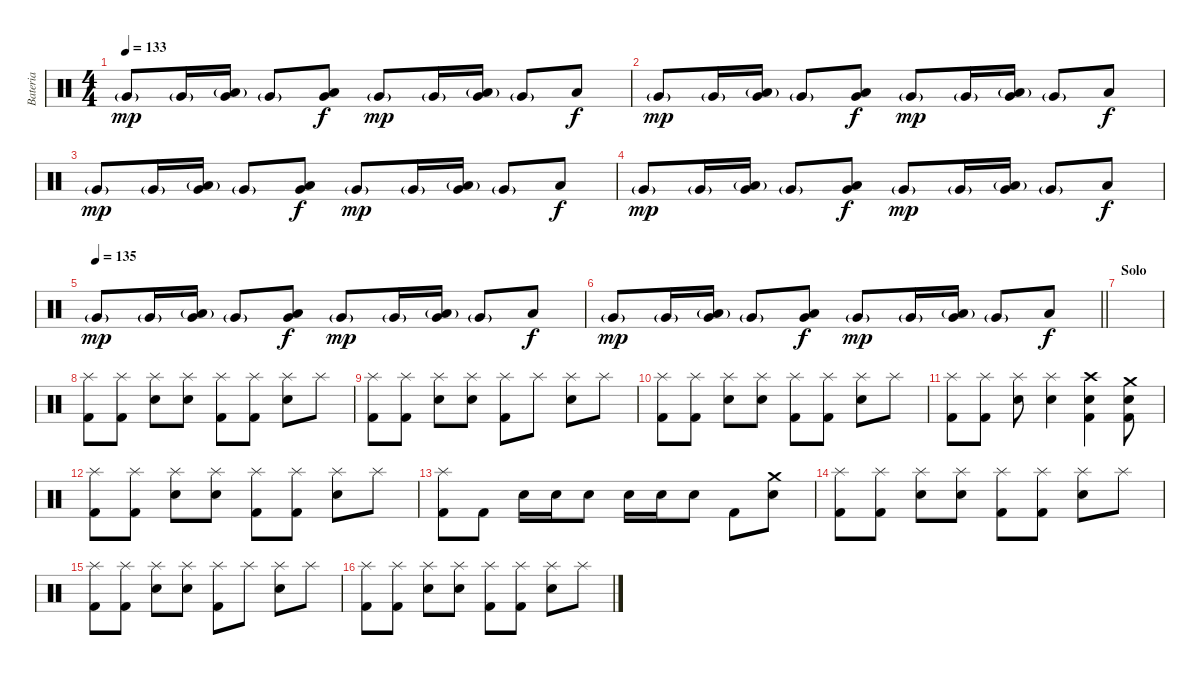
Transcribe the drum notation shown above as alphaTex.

\track ("Bateria" "Bateria") {instrument percussion}
\staff {score}
\articulation defaults
\ts (4 4)
\tempo 133
\clef neutral
\ks c "Very Low Tom (hit)"{g}.8{dy mp} "Very Low Tom (hit)"{g}.16
("Low Floor Tom (hit)"{g} "Very Low Tom (hit)").16 "Very Low Tom (hit)"{g}.8 ("Low Floor Tom (hit)" "Very Low Tom (hit)").8{dy f} "Very Low Tom (hit)"{g}.8{dy mp} "Very Low Tom (hit)"{g}.16 ("Low Floor Tom (hit)"{g} "Very Low Tom (hit)").16 "Very Low Tom (hit)"{g}.8 "Low Floor Tom (hit)".8{dy f} |
"Very Low Tom (hit)"{g}.8{dy mp} "Very Low Tom (hit)"{g}.16 ("Low Floor Tom (hit)"{g} "Very Low Tom (hit)").16 "Very Low Tom (hit)"{g}.8 ("Low Floor Tom (hit)" "Very Low Tom (hit)").8{dy f} "Very Low Tom (hit)"{g}.8{dy mp} "Very Low Tom (hit)"{g}.16 ("Low Floor Tom (hit)"{g} "Very Low Tom (hit)").16 "Very Low Tom (hit)"{g}.8 "Low Floor Tom (hit)".8{dy f} |
"Very Low Tom (hit)"{g}.8{dy mp} "Very Low Tom (hit)"{g}.16 ("Low Floor Tom (hit)"{g} "Very Low Tom (hit)").16 "Very Low Tom (hit)"{g}.8 ("Low Floor Tom (hit)" "Very Low Tom (hit)").8{dy f} "Very Low Tom (hit)"{g}.8{dy mp} "Very Low Tom (hit)"{g}.16 ("Low Floor Tom (hit)"{g} "Very Low Tom (hit)").16 "Very Low Tom (hit)"{g}.8 "Low Floor Tom (hit)".8{dy f} |
"Very Low Tom (hit)"{g}.8{dy mp} "Very Low Tom (hit)"{g}.16 ("Low Floor Tom (hit)"{g} "Very Low Tom (hit)").16 "Very Low Tom (hit)"{g}.8 ("Low Floor Tom (hit)" "Very Low Tom (hit)").8{dy f} "Very Low Tom (hit)"{g}.8{dy mp} "Very Low Tom (hit)"{g}.16 ("Low Floor Tom (hit)"{g} "Very Low Tom (hit)").16 "Very Low Tom (hit)"{g}.8 "Low Floor Tom (hit)".8{dy f} |
\tempo (135)
"Very Low Tom (hit)"{g}.8{dy mp} "Very Low Tom (hit)"{g}.16 ("Low Floor Tom (hit)"{g} "Very Low Tom (hit)").16 "Very Low Tom (hit)"{g}.8 ("Low Floor Tom (hit)" "Very Low Tom (hit)").8{dy f} "Very Low Tom (hit)"{g}.8{dy mp} "Very Low Tom (hit)"{g}.16 ("Low Floor Tom (hit)"{g} "Very Low Tom (hit)").16 "Very Low Tom (hit)"{g}.8 "Low Floor Tom (hit)".8{dy f} |
\barLineRight lightlight "Very Low Tom (hit)"{g}.8{dy mp} "Very Low Tom (hit)"{g}.16
("Low Floor Tom (hit)"{g} "Very Low Tom (hit)").16 "Very Low Tom (hit)"{g}.8 ("Low Floor Tom (hit)" "Very Low Tom (hit)").8{dy f} "Very Low Tom (hit)"{g}.8{dy mp} "Very Low Tom (hit)"{g}.16 ("Low Floor Tom (hit)"{g} "Very Low Tom (hit)").16 "Very Low Tom (hit)"{g}.8 "Low Floor Tom (hit)".8{dy f} |
\section ("" "Solo")
|
("Splash (hit)" "Kick (hit) 2").8 ("Splash (hit)" "Kick (hit) 2").8 ("Splash (hit)" "Electric Snare (hit)").8 ("Splash (hit)" "Electric Snare (hit)").8 ("Splash (hit)" "Kick (hit) 2").8 ("Splash (hit)" "Kick (hit) 2").8 ("Splash (hit)" "Electric Snare (hit)").8 "Splash (hit)".8 |
("Splash (hit)" "Kick (hit) 2").8 ("Splash (hit)" "Kick (hit) 2").8 ("Splash (hit)" "Electric Snare (hit)").8 ("Splash (hit)" "Electric Snare (hit)").8 ("Splash (hit)" "Kick (hit) 2").8 "Splash (hit)".8 ("Splash (hit)" "Electric Snare (hit)").8 "Splash (hit)".8 |
("Splash (hit)" "Kick (hit) 2").8 ("Splash (hit)" "Kick (hit) 2").8 ("Splash (hit)" "Electric Snare (hit)").8 ("Splash (hit)" "Electric Snare (hit)").8 ("Splash (hit)" "Kick (hit) 2").8 ("Splash (hit)" "Kick (hit) 2").8 ("Splash (hit)" "Electric Snare (hit)").8 "Splash (hit)".8 |
("Splash (hit)" "Kick (hit) 2").8 ("Splash (hit)" "Kick (hit) 2").8 ("Splash (hit)" "Electric Snare (hit)").8 ("Splash (hit)" "Electric Snare (hit)").4 ("Crash high (hit)" "Electric Snare (hit)" "Kick (hit) 2").4 ("Crash medium (hit)" "Electric Snare (hit)" "Kick (hit) 2").8 |
("Splash (hit)" "Kick (hit) 2").8 ("Splash (hit)" "Kick (hit) 2").8 ("Splash (hit)" "Electric Snare (hit)").8 ("Splash (hit)" "Electric Snare (hit)").8 ("Splash (hit)" "Kick (hit) 2").8 ("Splash (hit)" "Kick (hit) 2").8 ("Splash (hit)" "Electric Snare (hit)").8 "Splash (hit)".8 |
("Splash (hit)" "Kick (hit) 2").8 "Kick (hit) 2".8 "Electric Snare (hit)".16 "Electric Snare (hit)".16 "Electric Snare (hit)".8 "Electric Snare (hit)".16 "Electric Snare (hit)".16 "Electric Snare (hit)".8 "Kick (hit) 2".8 ("Crash medium (hit)" "Electric Snare (hit)").8 |
("Splash (hit)" "Kick (hit) 2").8 ("Splash (hit)" "Kick (hit) 2").8 ("Splash (hit)" "Electric Snare (hit)").8 ("Splash (hit)" "Electric Snare (hit)").8 ("Splash (hit)" "Kick (hit) 2").8 ("Splash (hit)" "Kick (hit) 2").8 ("Splash (hit)" "Electric Snare (hit)").8 "Splash (hit)".8 |
("Splash (hit)" "Kick (hit) 2").8 ("Splash (hit)" "Kick (hit) 2").8 ("Splash (hit)" "Electric Snare (hit)").8 ("Splash (hit)" "Electric Snare (hit)").8 ("Splash (hit)" "Kick (hit) 2").8 "Splash (hit)".8 ("Splash (hit)" "Electric Snare (hit)").8 "Splash (hit)".8 |
("Splash (hit)" "Kick (hit) 2").8 ("Splash (hit)" "Kick (hit) 2").8 ("Splash (hit)" "Electric Snare (hit)").8 ("Splash (hit)" "Electric Snare (hit)").8 ("Splash (hit)" "Kick (hit) 2").8 ("Splash (hit)" "Kick (hit) 2").8 ("Splash (hit)" "Electric Snare (hit)").8 "Splash (hit)".8
